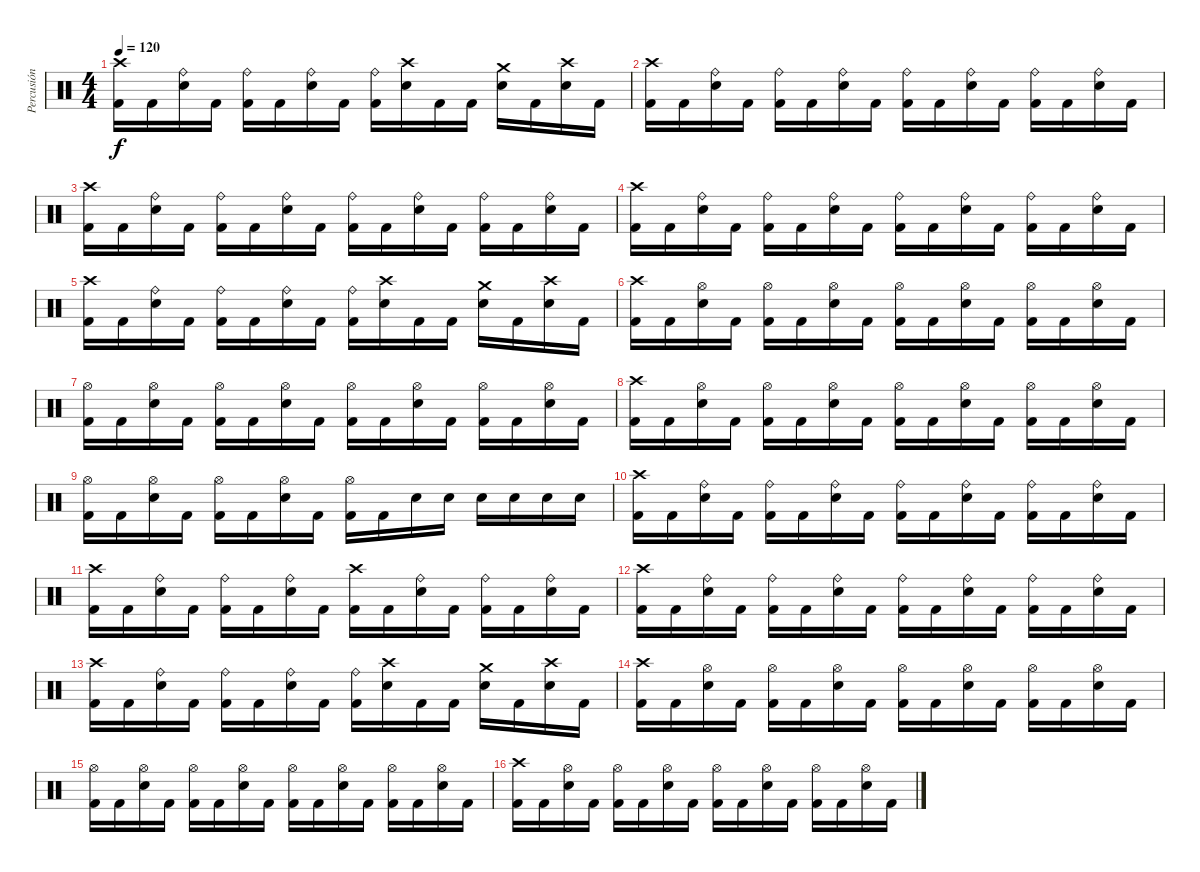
\track ("Percusión" "Percusión") {instrument percussion}
\staff {score}
\articulation defaults
\ts (4 4)
\tempo 120
\clef neutral
\ks c
("Crash high (hit)" "Kick (hit) 2").16{dy f} "Kick (hit) 2".16 ("Ride (bell)" "Electric Snare (hit)").16 "Kick (hit) 2".16 ("Ride (bell)" "Kick (hit) 2").16 "Kick (hit) 2".16 ("Ride (bell)" "Electric Snare (hit)").16 "Kick (hit) 2".16 ("Ride (bell)" "Kick (hit) 2").16 ("Crash high (hit)" "Electric Snare (hit)").16 "Kick (hit) 2".16 "Kick (hit) 2".16 ("Crash medium (hit)" "Electric Snare (hit)").16 "Kick (hit) 2".16 ("Crash high (hit)" "Electric Snare (hit)").16 "Kick (hit) 2".16 |
("Crash high (hit)" "Kick (hit) 2").16 "Kick (hit) 2".16 ("Ride (bell)" "Electric Snare (hit)").16 "Kick (hit) 2".16 ("Ride (bell)" "Kick (hit) 2").16 "Kick (hit) 2".16 ("Ride (bell)" "Electric Snare (hit)").16 "Kick (hit) 2".16 ("Ride (bell)" "Kick (hit) 2").16 "Kick (hit) 2".16 ("Ride (bell)" "Electric Snare (hit)").16 "Kick (hit) 2".16 ("Ride (bell)" "Kick (hit) 2").16 "Kick (hit) 2".16 ("Ride (bell)" "Electric Snare (hit)").16 "Kick (hit) 2".16 |
("Crash high (hit)" "Kick (hit) 2").16 "Kick (hit) 2".16 ("Ride (bell)" "Electric Snare (hit)").16 "Kick (hit) 2".16 ("Ride (bell)" "Kick (hit) 2").16 "Kick (hit) 2".16 ("Ride (bell)" "Electric Snare (hit)").16 "Kick (hit) 2".16 ("Ride (bell)" "Kick (hit) 2").16 "Kick (hit) 2".16 ("Ride (bell)" "Electric Snare (hit)").16 "Kick (hit) 2".16 ("Ride (bell)" "Kick (hit) 2").16 "Kick (hit) 2".16 ("Ride (bell)" "Electric Snare (hit)").16 "Kick (hit) 2".16 |
("Crash high (hit)" "Kick (hit) 2").16 "Kick (hit) 2".16 ("Ride (bell)" "Electric Snare (hit)").16 "Kick (hit) 2".16 ("Ride (bell)" "Kick (hit) 2").16 "Kick (hit) 2".16 ("Ride (bell)" "Electric Snare (hit)").16 "Kick (hit) 2".16 ("Ride (bell)" "Kick (hit) 2").16 "Kick (hit) 2".16 ("Ride (bell)" "Electric Snare (hit)").16 "Kick (hit) 2".16 ("Ride (bell)" "Kick (hit) 2").16 "Kick (hit) 2".16 ("Ride (bell)" "Electric Snare (hit)").16 "Kick (hit) 2".16 |
("Crash high (hit)" "Kick (hit) 2").16 "Kick (hit) 2".16 ("Ride (bell)" "Electric Snare (hit)").16 "Kick (hit) 2".16 ("Ride (bell)" "Kick (hit) 2").16 "Kick (hit) 2".16 ("Ride (bell)" "Electric Snare (hit)").16 "Kick (hit) 2".16 ("Ride (bell)" "Kick (hit) 2").16 ("Crash high (hit)" "Electric Snare (hit)").16 "Kick (hit) 2".16 "Kick (hit) 2".16 ("Crash medium (hit)" "Electric Snare (hit)").16 "Kick (hit) 2".16 ("Crash high (hit)" "Electric Snare (hit)").16 "Kick (hit) 2".16 |
("Crash high (hit)" "Kick (hit) 2").16 "Kick (hit) 2".16 ("Hi-Hat (open)" "Electric Snare (hit)").16 "Kick (hit) 2".16 ("Hi-Hat (open)" "Kick (hit) 2").16 "Kick (hit) 2".16 ("Hi-Hat (open)" "Electric Snare (hit)").16 "Kick (hit) 2".16 ("Hi-Hat (open)" "Kick (hit) 2").16 "Kick (hit) 2".16 ("Hi-Hat (open)" "Electric Snare (hit)").16 "Kick (hit) 2".16 ("Hi-Hat (open)" "Kick (hit) 2").16 "Kick (hit) 2".16 ("Hi-Hat (open)" "Electric Snare (hit)").16 "Kick (hit) 2".16 |
("Hi-Hat (open)" "Kick (hit) 2").16 "Kick (hit) 2".16 ("Hi-Hat (open)" "Electric Snare (hit)").16 "Kick (hit) 2".16 ("Hi-Hat (open)" "Kick (hit) 2").16 "Kick (hit) 2".16 ("Hi-Hat (open)" "Electric Snare (hit)").16 "Kick (hit) 2".16 ("Hi-Hat (open)" "Kick (hit) 2").16 "Kick (hit) 2".16 ("Hi-Hat (open)" "Electric Snare (hit)").16 "Kick (hit) 2".16 ("Hi-Hat (open)" "Kick (hit) 2").16 "Kick (hit) 2".16 ("Hi-Hat (open)" "Electric Snare (hit)").16 "Kick (hit) 2".16 |
("Crash high (hit)" "Kick (hit) 2").16 "Kick (hit) 2".16 ("Hi-Hat (open)" "Electric Snare (hit)").16 "Kick (hit) 2".16 ("Hi-Hat (open)" "Kick (hit) 2").16 "Kick (hit) 2".16 ("Hi-Hat (open)" "Electric Snare (hit)").16 "Kick (hit) 2".16 ("Hi-Hat (open)" "Kick (hit) 2").16 "Kick (hit) 2".16 ("Hi-Hat (open)" "Electric Snare (hit)").16 "Kick (hit) 2".16 ("Hi-Hat (open)" "Kick (hit) 2").16 "Kick (hit) 2".16 ("Hi-Hat (open)" "Electric Snare (hit)").16 "Kick (hit) 2".16 |
("Hi-Hat (open)" "Kick (hit) 2").16 "Kick (hit) 2".16 ("Hi-Hat (open)" "Electric Snare (hit)").16 "Kick (hit) 2".16 ("Hi-Hat (open)" "Kick (hit) 2").16 "Kick (hit) 2".16 ("Hi-Hat (open)" "Electric Snare (hit)").16 "Kick (hit) 2".16 ("Hi-Hat (open)" "Kick (hit) 2").16 "Kick (hit) 2".16 "Electric Snare (hit)".16 "Electric Snare (hit)".16 "Electric Snare (hit)".16 "Electric Snare (hit)".16 "Electric Snare (hit)".16 "Electric Snare (hit)".16 |
("Crash high (hit)" "Kick (hit) 2").16 "Kick (hit) 2".16 ("Ride (bell)" "Electric Snare (hit)").16 "Kick (hit) 2".16 ("Ride (bell)" "Kick (hit) 2").16 "Kick (hit) 2".16 ("Ride (bell)" "Electric Snare (hit)").16 "Kick (hit) 2".16 ("Ride (bell)" "Kick (hit) 2").16 "Kick (hit) 2".16 ("Ride (bell)" "Electric Snare (hit)").16 "Kick (hit) 2".16 ("Ride (bell)" "Kick (hit) 2").16 "Kick (hit) 2".16 ("Ride (bell)" "Electric Snare (hit)").16 "Kick (hit) 2".16 |
("Crash high (hit)" "Kick (hit) 2").16 "Kick (hit) 2".16 ("Ride (bell)" "Electric Snare (hit)").16 "Kick (hit) 2".16 ("Ride (bell)" "Kick (hit) 2").16 "Kick (hit) 2".16 ("Ride (bell)" "Electric Snare (hit)").16 "Kick (hit) 2".16 ("Crash high (hit)" "Kick (hit) 2").16 "Kick (hit) 2".16 ("Ride (bell)" "Electric Snare (hit)").16 "Kick (hit) 2".16 ("Ride (bell)" "Kick (hit) 2").16 "Kick (hit) 2".16 ("Ride (bell)" "Electric Snare (hit)").16 "Kick (hit) 2".16 |
("Crash high (hit)" "Kick (hit) 2").16 "Kick (hit) 2".16 ("Ride (bell)" "Electric Snare (hit)").16 "Kick (hit) 2".16 ("Ride (bell)" "Kick (hit) 2").16 "Kick (hit) 2".16 ("Ride (bell)" "Electric Snare (hit)").16 "Kick (hit) 2".16 ("Ride (bell)" "Kick (hit) 2").16 "Kick (hit) 2".16 ("Ride (bell)" "Electric Snare (hit)").16 "Kick (hit) 2".16 ("Ride (bell)" "Kick (hit) 2").16 "Kick (hit) 2".16 ("Ride (bell)" "Electric Snare (hit)").16 "Kick (hit) 2".16 |
("Crash high (hit)" "Kick (hit) 2").16 "Kick (hit) 2".16 ("Ride (bell)" "Electric Snare (hit)").16 "Kick (hit) 2".16 ("Ride (bell)" "Kick (hit) 2").16 "Kick (hit) 2".16 ("Ride (bell)" "Electric Snare (hit)").16 "Kick (hit) 2".16 ("Ride (bell)" "Kick (hit) 2").16 ("Crash high (hit)" "Electric Snare (hit)").16 "Kick (hit) 2".16 "Kick (hit) 2".16 ("Crash medium (hit)" "Electric Snare (hit)").16 "Kick (hit) 2".16 ("Crash high (hit)" "Electric Snare (hit)").16 "Kick (hit) 2".16 |
("Crash high (hit)" "Kick (hit) 2").16 "Kick (hit) 2".16 ("Hi-Hat (open)" "Electric Snare (hit)").16 "Kick (hit) 2".16 ("Hi-Hat (open)" "Kick (hit) 2").16 "Kick (hit) 2".16 ("Hi-Hat (open)" "Electric Snare (hit)").16 "Kick (hit) 2".16 ("Hi-Hat (open)" "Kick (hit) 2").16 "Kick (hit) 2".16 ("Hi-Hat (open)" "Electric Snare (hit)").16 "Kick (hit) 2".16 ("Hi-Hat (open)" "Kick (hit) 2").16 "Kick (hit) 2".16 ("Hi-Hat (open)" "Electric Snare (hit)").16 "Kick (hit) 2".16 |
("Hi-Hat (open)" "Kick (hit) 2").16 "Kick (hit) 2".16 ("Hi-Hat (open)" "Electric Snare (hit)").16 "Kick (hit) 2".16 ("Hi-Hat (open)" "Kick (hit) 2").16 "Kick (hit) 2".16 ("Hi-Hat (open)" "Electric Snare (hit)").16 "Kick (hit) 2".16 ("Hi-Hat (open)" "Kick (hit) 2").16 "Kick (hit) 2".16 ("Hi-Hat (open)" "Electric Snare (hit)").16 "Kick (hit) 2".16 ("Hi-Hat (open)" "Kick (hit) 2").16 "Kick (hit) 2".16 ("Hi-Hat (open)" "Electric Snare (hit)").16 "Kick (hit) 2".16 |
("Crash high (hit)" "Kick (hit) 2").16 "Kick (hit) 2".16 ("Hi-Hat (open)" "Electric Snare (hit)").16 "Kick (hit) 2".16 ("Hi-Hat (open)" "Kick (hit) 2").16 "Kick (hit) 2".16 ("Hi-Hat (open)" "Electric Snare (hit)").16 "Kick (hit) 2".16 ("Hi-Hat (open)" "Kick (hit) 2").16 "Kick (hit) 2".16 ("Hi-Hat (open)" "Electric Snare (hit)").16 "Kick (hit) 2".16 ("Hi-Hat (open)" "Kick (hit) 2").16 "Kick (hit) 2".16 ("Hi-Hat (open)" "Electric Snare (hit)").16 "Kick (hit) 2".16
